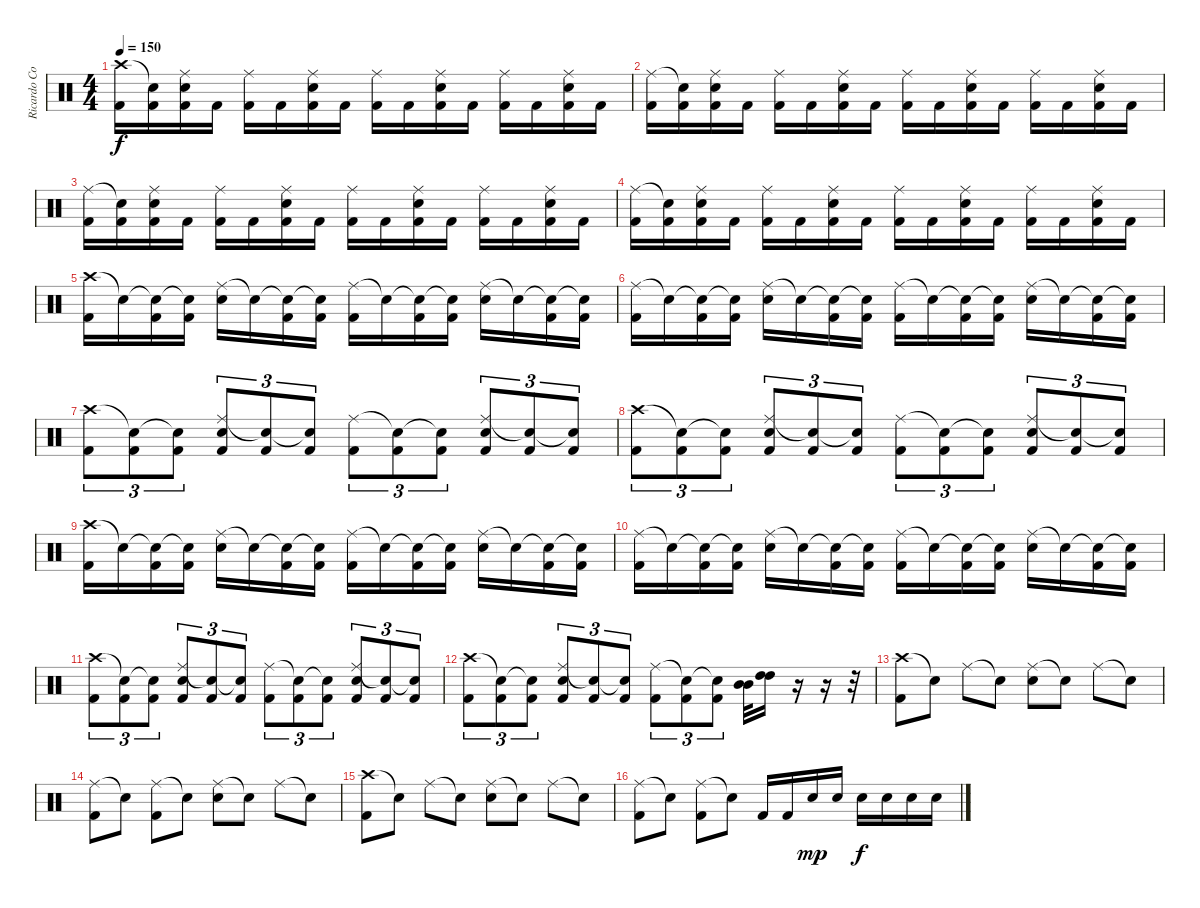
\track ("Ricardo Confessori" "Ricardo Co") {instrument percussion}
\staff {score}
\articulation defaults
\ts (4 4)
\tempo 150
\clef neutral
\ks c
("Crash high (hit)" "Kick (hit) 2").16{dy f} ("Snare (hit)"{t} "Kick (hit) 2").16 ("Ride (middle)" "Electric Snare (hit)" "Kick (hit) 2").16 "Kick (hit) 2".16 ("Ride (middle)" "Kick (hit) 2").16 "Kick (hit) 2".16 ("Ride (middle)" "Electric Snare (hit)" "Kick (hit) 2").16 "Kick (hit) 2".16 ("Ride (middle)" "Kick (hit) 2").16 "Kick (hit) 2".16 ("Ride (middle)" "Electric Snare (hit)" "Kick (hit) 2").16 "Kick (hit) 2".16 ("Ride (middle)" "Kick (hit) 2").16 "Kick (hit) 2".16 ("Ride (middle)" "Electric Snare (hit)" "Kick (hit) 2").16 "Kick (hit) 2".16 |
("Ride (middle)" "Kick (hit) 2").16 ("Snare (hit)"{t} "Kick (hit) 2").16 ("Ride (middle)" "Electric Snare (hit)" "Kick (hit) 2").16 "Kick (hit) 2".16 ("Ride (middle)" "Kick (hit) 2").16 "Kick (hit) 2".16 ("Ride (middle)" "Electric Snare (hit)" "Kick (hit) 2").16 "Kick (hit) 2".16 ("Ride (middle)" "Kick (hit) 2").16 "Kick (hit) 2".16 ("Ride (middle)" "Electric Snare (hit)" "Kick (hit) 2").16 "Kick (hit) 2".16 ("Ride (middle)" "Kick (hit) 2").16 "Kick (hit) 2".16 ("Ride (middle)" "Electric Snare (hit)" "Kick (hit) 2").16 "Kick (hit) 2".16 |
("Ride (middle)" "Kick (hit) 2").16 ("Snare (hit)"{t} "Kick (hit) 2").16 ("Ride (middle)" "Electric Snare (hit)" "Kick (hit) 2").16 "Kick (hit) 2".16 ("Ride (middle)" "Kick (hit) 2").16 "Kick (hit) 2".16 ("Ride (middle)" "Electric Snare (hit)" "Kick (hit) 2").16 "Kick (hit) 2".16 ("Ride (middle)" "Kick (hit) 2").16 "Kick (hit) 2".16 ("Ride (middle)" "Electric Snare (hit)" "Kick (hit) 2").16 "Kick (hit) 2".16 ("Ride (middle)" "Kick (hit) 2").16 "Kick (hit) 2".16 ("Ride (middle)" "Electric Snare (hit)" "Kick (hit) 2").16 "Kick (hit) 2".16 |
("Ride (middle)" "Kick (hit) 2").16 ("Snare (hit)"{t} "Kick (hit) 2").16 ("Ride (middle)" "Electric Snare (hit)" "Kick (hit) 2").16 "Kick (hit) 2".16 ("Ride (middle)" "Kick (hit) 2").16 "Kick (hit) 2".16 ("Ride (middle)" "Electric Snare (hit)" "Kick (hit) 2").16 "Kick (hit) 2".16 ("Ride (middle)" "Kick (hit) 2").16 "Kick (hit) 2".16 ("Ride (middle)" "Electric Snare (hit)" "Kick (hit) 2").16 "Kick (hit) 2".16 ("Ride (middle)" "Kick (hit) 2").16 "Kick (hit) 2".16 ("Ride (middle)" "Electric Snare (hit)" "Kick (hit) 2").16 "Kick (hit) 2".16 |
("Crash high (hit)" "Kick (hit) 2").16 "Snare (hit)"{t}.16 ("Snare (hit)"{t} "Kick (hit) 2").16 ("Snare (hit)"{t} "Kick (hit) 2").16 ("Ride (middle)" "Electric Snare (hit)").16 "Snare (hit)"{t}.16 ("Snare (hit)"{t} "Kick (hit) 2").16 ("Snare (hit)"{t} "Kick (hit) 2").16 ("Ride (middle)" "Kick (hit) 2").16 "Snare (hit)"{t}.16 ("Snare (hit)"{t} "Kick (hit) 2").16 ("Snare (hit)"{t} "Kick (hit) 2").16 ("Ride (middle)" "Electric Snare (hit)").16 "Snare (hit)"{t}.16 ("Snare (hit)"{t} "Kick (hit) 2").16 ("Snare (hit)"{t} "Kick (hit) 2").16 |
("Ride (middle)" "Kick (hit) 2").16 "Snare (hit)"{t}.16 ("Snare (hit)"{t} "Kick (hit) 2").16 ("Snare (hit)"{t} "Kick (hit) 2").16 ("Ride (middle)" "Electric Snare (hit)").16 "Snare (hit)"{t}.16 ("Snare (hit)"{t} "Kick (hit) 2").16 ("Snare (hit)"{t} "Kick (hit) 2").16 ("Ride (middle)" "Kick (hit) 2").16 "Snare (hit)"{t}.16 ("Snare (hit)"{t} "Kick (hit) 2").16 ("Snare (hit)"{t} "Kick (hit) 2").16 ("Ride (middle)" "Electric Snare (hit)").16 "Snare (hit)"{t}.16 ("Snare (hit)"{t} "Kick (hit) 2").16 ("Snare (hit)"{t} "Kick (hit) 2").16 |
("Crash high (hit)" "Kick (hit) 2").8{tu (3 2)} ("Snare (hit)"{t} "Kick (hit) 2").8{tu (3 2)} ("Snare (hit)"{t} "Kick (hit) 2").8{tu (3 2)} ("Ride (middle)" "Electric Snare (hit)" "Kick (hit) 2").8{tu (3 2)} ("Snare (hit)"{t} "Kick (hit) 2").8{tu (3 2)} ("Snare (hit)"{t} "Kick (hit) 2").8{tu (3 2)} ("Ride (middle)" "Kick (hit) 2").8{tu (3 2)} ("Snare (hit)"{t} "Kick (hit) 2").8{tu (3 2)} ("Snare (hit)"{t} "Kick (hit) 2").8{tu (3 2)} ("Ride (middle)" "Electric Snare (hit)" "Kick (hit) 2").8{tu (3 2)} ("Snare (hit)"{t} "Kick (hit) 2").8{tu (3 2)} ("Snare (hit)"{t} "Kick (hit) 2").8{tu (3 2)} |
("Crash high (hit)" "Kick (hit) 2").8{tu (3 2)} ("Snare (hit)"{t} "Kick (hit) 2").8{tu (3 2)} ("Snare (hit)"{t} "Kick (hit) 2").8{tu (3 2)} ("Ride (middle)" "Electric Snare (hit)" "Kick (hit) 2").8{tu (3 2)} ("Snare (hit)"{t} "Kick (hit) 2").8{tu (3 2)} ("Snare (hit)"{t} "Kick (hit) 2").8{tu (3 2)} ("Ride (middle)" "Kick (hit) 2").8{tu (3 2)} ("Snare (hit)"{t} "Kick (hit) 2").8{tu (3 2)} ("Snare (hit)"{t} "Kick (hit) 2").8{tu (3 2)} ("Ride (middle)" "Electric Snare (hit)" "Kick (hit) 2").8{tu (3 2)} ("Snare (hit)"{t} "Kick (hit) 2").8{tu (3 2)} ("Snare (hit)"{t} "Kick (hit) 2").8{tu (3 2)} |
("Crash high (hit)" "Kick (hit) 2").16 "Snare (hit)"{t}.16 ("Snare (hit)"{t} "Kick (hit) 2").16 ("Snare (hit)"{t} "Kick (hit) 2").16 ("Ride (middle)" "Electric Snare (hit)").16 "Snare (hit)"{t}.16 ("Snare (hit)"{t} "Kick (hit) 2").16 ("Snare (hit)"{t} "Kick (hit) 2").16 ("Ride (middle)" "Kick (hit) 2").16 "Snare (hit)"{t}.16 ("Snare (hit)"{t} "Kick (hit) 2").16 ("Snare (hit)"{t} "Kick (hit) 2").16 ("Ride (middle)" "Electric Snare (hit)").16 "Snare (hit)"{t}.16 ("Snare (hit)"{t} "Kick (hit) 2").16 ("Snare (hit)"{t} "Kick (hit) 2").16 |
("Ride (middle)" "Kick (hit) 2").16 "Snare (hit)"{t}.16 ("Snare (hit)"{t} "Kick (hit) 2").16 ("Snare (hit)"{t} "Kick (hit) 2").16 ("Ride (middle)" "Electric Snare (hit)").16 "Snare (hit)"{t}.16 ("Snare (hit)"{t} "Kick (hit) 2").16 ("Snare (hit)"{t} "Kick (hit) 2").16 ("Ride (middle)" "Kick (hit) 2").16 "Snare (hit)"{t}.16 ("Snare (hit)"{t} "Kick (hit) 2").16 ("Snare (hit)"{t} "Kick (hit) 2").16 ("Ride (middle)" "Electric Snare (hit)").16 "Snare (hit)"{t}.16 ("Snare (hit)"{t} "Kick (hit) 2").16 ("Snare (hit)"{t} "Kick (hit) 2").16 |
("Crash high (hit)" "Kick (hit) 2").8{tu (3 2)} ("Snare (hit)"{t} "Kick (hit) 2").8{tu (3 2)} ("Snare (hit)"{t} "Kick (hit) 2").8{tu (3 2)} ("Ride (middle)" "Electric Snare (hit)" "Kick (hit) 2").8{tu (3 2)} ("Snare (hit)"{t} "Kick (hit) 2").8{tu (3 2)} ("Snare (hit)"{t} "Kick (hit) 2").8{tu (3 2)} ("Ride (middle)" "Kick (hit) 2").8{tu (3 2)} ("Snare (hit)"{t} "Kick (hit) 2").8{tu (3 2)} ("Snare (hit)"{t} "Kick (hit) 2").8{tu (3 2)} ("Ride (middle)" "Electric Snare (hit)" "Kick (hit) 2").8{tu (3 2)} ("Snare (hit)"{t} "Kick (hit) 2").8{tu (3 2)} ("Snare (hit)"{t} "Kick (hit) 2").8{tu (3 2)} |
("Crash high (hit)" "Kick (hit) 2").8{tu (3 2)} ("Snare (hit)"{t} "Kick (hit) 2").8{tu (3 2)} ("Snare (hit)"{t} "Kick (hit) 2").8{tu (3 2)} ("Ride (middle)" "Electric Snare (hit)" "Kick (hit) 2").8{tu (3 2)} ("Snare (hit)"{t} "Kick (hit) 2").8{tu (3 2)} ("Snare (hit)"{t} "Kick (hit) 2").8{tu (3 2)} ("Ride (middle)" "Kick (hit) 2").8{tu (3 2)} ("Snare (hit)"{t} "Kick (hit) 2").8{tu (3 2)} ("Snare (hit)"{t} "Kick (hit) 2").8{tu (3 2)} ("Mid Tom (hit)" "Mid Tom (hit)").32 ("High Tom (hit)" "High Tom (hit)").16 r.16 r.16 r.32 |
("Crash high (hit)" "Kick (hit) 2").8 "Snare (hit)"{t}.8 "Ride (middle)".8 "Snare (hit)"{t}.8 ("Ride (middle)" "Electric Snare (hit)").8 "Snare (hit)"{t}.8 "Ride (middle)".8 "Snare (hit)"{t}.8 |
("Ride (middle)" "Kick (hit) 2").8 "Snare (hit)"{t}.8 ("Ride (middle)" "Kick (hit) 2").8 "Snare (hit)"{t}.8 ("Ride (middle)" "Electric Snare (hit)").8 "Snare (hit)"{t}.8 "Ride (middle)".8 "Snare (hit)"{t}.8 |
("Crash high (hit)" "Kick (hit) 2").8 "Snare (hit)"{t}.8 "Ride (middle)".8 "Snare (hit)"{t}.8 ("Ride (middle)" "Electric Snare (hit)").8 "Snare (hit)"{t}.8 "Ride (middle)".8 "Snare (hit)"{t}.8 |
("Ride (middle)" "Kick (hit) 2").8 "Snare (hit)"{t}.8 ("Ride (middle)" "Kick (hit) 2").8 "Snare (hit)"{t}.8 "Kick (hit) 2".16 "Kick (hit) 2".16 "Electric Snare (hit)".16{dy mp} "Electric Snare (hit)".16 "Electric Snare (hit)".16{dy f} "Electric Snare (hit)".16 "Electric Snare (hit)".16 "Electric Snare (hit)".16
